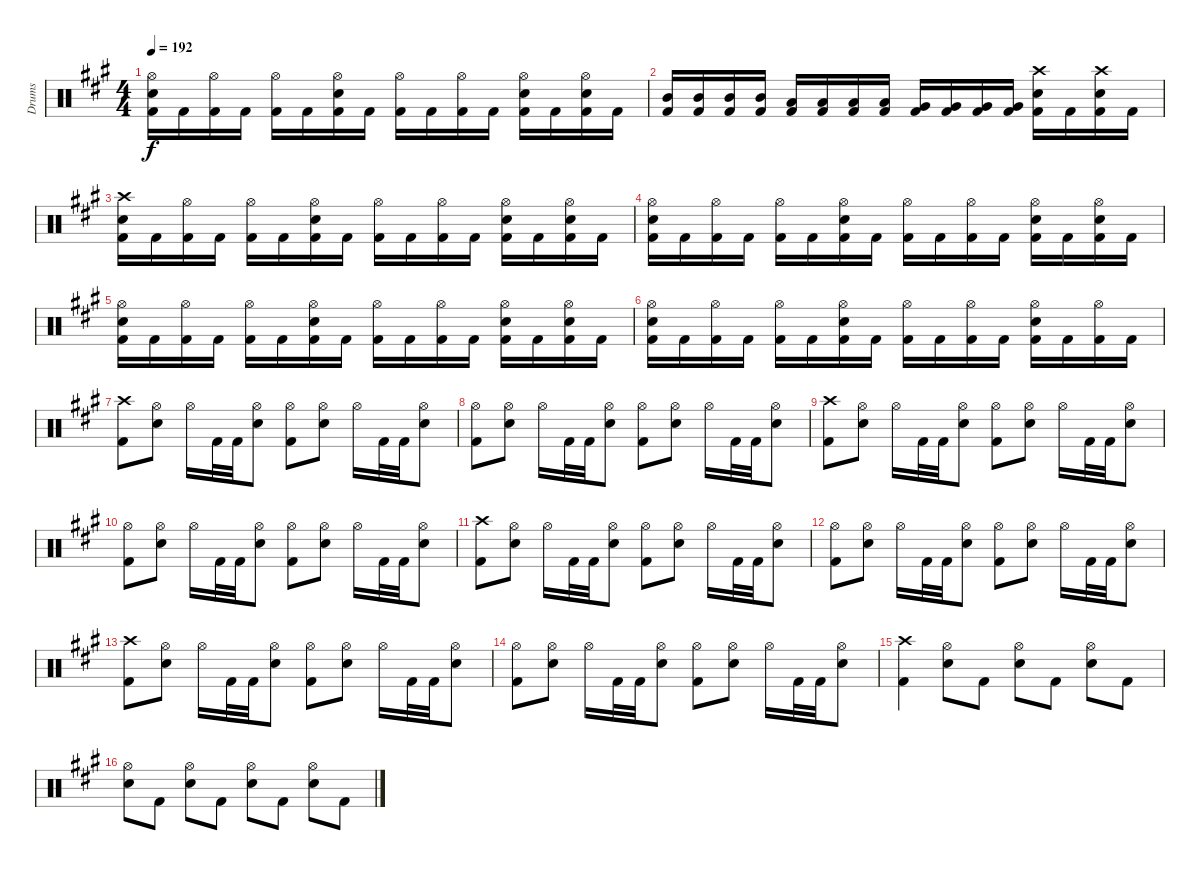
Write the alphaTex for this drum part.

\track ("Drums" "Drums") {instrument percussion}
\staff {score}
\articulation defaults
\ts (4 4)
\tempo 192
\clef neutral
\ks f#minor
("Hi-Hat (open)" "Snare (hit) 2" "Kick (hit) 2").16{dy f} "Kick (hit) 2".16 ("Hi-Hat (open)" "Kick (hit) 2").16 "Kick (hit) 2".16 ("Hi-Hat (open)" "Kick (hit) 2").16 "Kick (hit) 2".16 ("Hi-Hat (open)" "Snare (hit) 2" "Kick (hit) 2").16 "Kick (hit) 2".16 ("Hi-Hat (open)" "Kick (hit) 2").16 "Kick (hit) 2".16 ("Hi-Hat (open)" "Kick (hit) 2").16 "Kick (hit) 2".16 ("Hi-Hat (open)" "Snare (hit) 2" "Kick (hit) 2").16 "Kick (hit) 2".16 ("Hi-Hat (open)" "Snare (hit) 2" "Kick (hit) 2").16 "Kick (hit) 2".16 |
("Mid Tom (hit)" "Kick (hit) 2").16 ("Mid Tom (hit)" "Kick (hit) 2").16 ("Mid Tom (hit)" "Kick (hit) 2").16 ("Mid Tom (hit)" "Kick (hit) 2").16 ("Low Tom (hit)" "Kick (hit) 2").16 ("Low Tom (hit)" "Kick (hit) 2").16 ("Low Tom (hit)" "Kick (hit) 2").16 ("Low Tom (hit)" "Kick (hit) 2").16 ("Very Low Tom (hit)" "Kick (hit) 2").16 ("Very Low Tom (hit)" "Kick (hit) 2").16 ("Very Low Tom (hit)" "Kick (hit) 2").16 ("Very Low Tom (hit)" "Kick (hit) 2").16 ("Crash high (hit)" "Snare (hit) 2" "Kick (hit) 2").16 "Kick (hit) 2".16 ("Crash high (hit)" "Snare (hit) 2" "Kick (hit) 2").16 "Kick (hit) 2".16 |
("Crash high (hit)" "Snare (hit) 2" "Kick (hit) 2").16 "Kick (hit) 2".16 ("Hi-Hat (open)" "Kick (hit) 2").16 "Kick (hit) 2".16 ("Hi-Hat (open)" "Kick (hit) 2").16 "Kick (hit) 2".16 ("Hi-Hat (open)" "Snare (hit) 2" "Kick (hit) 2").16 "Kick (hit) 2".16 ("Hi-Hat (open)" "Kick (hit) 2").16 "Kick (hit) 2".16 ("Hi-Hat (open)" "Kick (hit) 2").16 "Kick (hit) 2".16 ("Hi-Hat (open)" "Snare (hit) 2" "Kick (hit) 2").16 "Kick (hit) 2".16 ("Hi-Hat (open)" "Snare (hit) 2" "Kick (hit) 2").16 "Kick (hit) 2".16 |
("Hi-Hat (open)" "Snare (hit) 2" "Kick (hit) 2").16 "Kick (hit) 2".16 ("Hi-Hat (open)" "Kick (hit) 2").16 "Kick (hit) 2".16 ("Hi-Hat (open)" "Kick (hit) 2").16 "Kick (hit) 2".16 ("Hi-Hat (open)" "Snare (hit) 2" "Kick (hit) 2").16 "Kick (hit) 2".16 ("Hi-Hat (open)" "Kick (hit) 2").16 "Kick (hit) 2".16 ("Hi-Hat (open)" "Kick (hit) 2").16 "Kick (hit) 2".16 ("Hi-Hat (open)" "Snare (hit) 2" "Kick (hit) 2").16 "Kick (hit) 2".16 ("Hi-Hat (open)" "Snare (hit) 2" "Kick (hit) 2").16 "Kick (hit) 2".16 |
("Hi-Hat (open)" "Snare (hit) 2" "Kick (hit) 2").16 "Kick (hit) 2".16 ("Hi-Hat (open)" "Kick (hit) 2").16 "Kick (hit) 2".16 ("Hi-Hat (open)" "Kick (hit) 2").16 "Kick (hit) 2".16 ("Hi-Hat (open)" "Snare (hit) 2" "Kick (hit) 2").16 "Kick (hit) 2".16 ("Hi-Hat (open)" "Kick (hit) 2").16 "Kick (hit) 2".16 ("Hi-Hat (open)" "Kick (hit) 2").16 "Kick (hit) 2".16 ("Hi-Hat (open)" "Snare (hit) 2" "Kick (hit) 2").16 "Kick (hit) 2".16 ("Hi-Hat (open)" "Snare (hit) 2" "Kick (hit) 2").16 "Kick (hit) 2".16 |
("Hi-Hat (open)" "Snare (hit) 2" "Kick (hit) 2").16 "Kick (hit) 2".16 ("Hi-Hat (open)" "Kick (hit) 2").16 "Kick (hit) 2".16 ("Hi-Hat (open)" "Kick (hit) 2").16 "Kick (hit) 2".16 ("Hi-Hat (open)" "Snare (hit) 2" "Kick (hit) 2").16 "Kick (hit) 2".16 ("Hi-Hat (open)" "Kick (hit) 2").16 "Kick (hit) 2".16 ("Hi-Hat (open)" "Kick (hit) 2").16 "Kick (hit) 2".16 ("Hi-Hat (open)" "Snare (hit) 2" "Kick (hit) 2").16 "Kick (hit) 2".16 ("Hi-Hat (open)" "Kick (hit) 2").16 "Kick (hit) 2".16 |
("Crash high (hit)" "Kick (hit) 2").8 ("Hi-Hat (open)" "Snare (hit) 2").8 "Hi-Hat (open)".16 "Kick (hit) 2".32 "Kick (hit) 2".32 ("Hi-Hat (open)" "Snare (hit) 2").8 ("Hi-Hat (open)" "Kick (hit) 2").8 ("Hi-Hat (open)" "Snare (hit) 2").8 "Hi-Hat (open)".16 "Kick (hit) 2".32 "Kick (hit) 2".32 ("Hi-Hat (open)" "Snare (hit) 2").8 |
("Hi-Hat (open)" "Kick (hit) 2").8 ("Hi-Hat (open)" "Snare (hit) 2").8 "Hi-Hat (open)".16 "Kick (hit) 2".32 "Kick (hit) 2".32 ("Hi-Hat (open)" "Snare (hit) 2").8 ("Hi-Hat (open)" "Kick (hit) 2").8 ("Hi-Hat (open)" "Snare (hit) 2").8 "Hi-Hat (open)".16 "Kick (hit) 2".32 "Kick (hit) 2".32 ("Hi-Hat (open)" "Snare (hit) 2").8 |
("Crash high (hit)" "Kick (hit) 2").8 ("Hi-Hat (open)" "Snare (hit) 2").8 "Hi-Hat (open)".16 "Kick (hit) 2".32 "Kick (hit) 2".32 ("Hi-Hat (open)" "Snare (hit) 2").8 ("Hi-Hat (open)" "Kick (hit) 2").8 ("Hi-Hat (open)" "Snare (hit) 2").8 "Hi-Hat (open)".16 "Kick (hit) 2".32 "Kick (hit) 2".32 ("Hi-Hat (open)" "Snare (hit) 2").8 |
("Hi-Hat (open)" "Kick (hit) 2").8 ("Hi-Hat (open)" "Snare (hit) 2").8 "Hi-Hat (open)".16 "Kick (hit) 2".32 "Kick (hit) 2".32 ("Hi-Hat (open)" "Snare (hit) 2").8 ("Hi-Hat (open)" "Kick (hit) 2").8 ("Hi-Hat (open)" "Snare (hit) 2").8 "Hi-Hat (open)".16 "Kick (hit) 2".32 "Kick (hit) 2".32 ("Hi-Hat (open)" "Snare (hit) 2").8 |
("Crash high (hit)" "Kick (hit) 2").8 ("Hi-Hat (open)" "Snare (hit) 2").8 "Hi-Hat (open)".16 "Kick (hit) 2".32 "Kick (hit) 2".32 ("Hi-Hat (open)" "Snare (hit) 2").8 ("Hi-Hat (open)" "Kick (hit) 2").8 ("Hi-Hat (open)" "Snare (hit) 2").8 "Hi-Hat (open)".16 "Kick (hit) 2".32 "Kick (hit) 2".32 ("Hi-Hat (open)" "Snare (hit) 2").8 |
("Hi-Hat (open)" "Kick (hit) 2").8 ("Hi-Hat (open)" "Snare (hit) 2").8 "Hi-Hat (open)".16 "Kick (hit) 2".32 "Kick (hit) 2".32 ("Hi-Hat (open)" "Snare (hit) 2").8 ("Hi-Hat (open)" "Kick (hit) 2").8 ("Hi-Hat (open)" "Snare (hit) 2").8 "Hi-Hat (open)".16 "Kick (hit) 2".32 "Kick (hit) 2".32 ("Hi-Hat (open)" "Snare (hit) 2").8 |
("Crash high (hit)" "Kick (hit) 2").8 ("Hi-Hat (open)" "Snare (hit) 2").8 "Hi-Hat (open)".16 "Kick (hit) 2".32 "Kick (hit) 2".32 ("Hi-Hat (open)" "Snare (hit) 2").8 ("Hi-Hat (open)" "Kick (hit) 2").8 ("Hi-Hat (open)" "Snare (hit) 2").8 "Hi-Hat (open)".16 "Kick (hit) 2".32 "Kick (hit) 2".32 ("Hi-Hat (open)" "Snare (hit) 2").8 |
("Hi-Hat (open)" "Kick (hit) 2").8 ("Hi-Hat (open)" "Snare (hit) 2").8 "Hi-Hat (open)".16 "Kick (hit) 2".32 "Kick (hit) 2".32 ("Hi-Hat (open)" "Snare (hit) 2").8 ("Hi-Hat (open)" "Kick (hit) 2").8 ("Hi-Hat (open)" "Snare (hit) 2").8 "Hi-Hat (open)".16 "Kick (hit) 2".32 "Kick (hit) 2".32 ("Hi-Hat (open)" "Snare (hit) 2").8 |
("Crash high (hit)" "Kick (hit) 2").4 ("Hi-Hat (open)" "Snare (hit) 2").8 "Kick (hit) 2".8 ("Hi-Hat (open)" "Snare (hit) 2").8 "Kick (hit) 2".8 ("Hi-Hat (open)" "Snare (hit) 2").8 "Kick (hit) 2".8 |
("Hi-Hat (open)" "Snare (hit) 2").8 "Kick (hit) 2".8 ("Hi-Hat (open)" "Snare (hit) 2").8 "Kick (hit) 2".8 ("Hi-Hat (open)" "Snare (hit) 2").8 "Kick (hit) 2".8 ("Hi-Hat (open)" "Snare (hit) 2").8 "Kick (hit) 2".8
